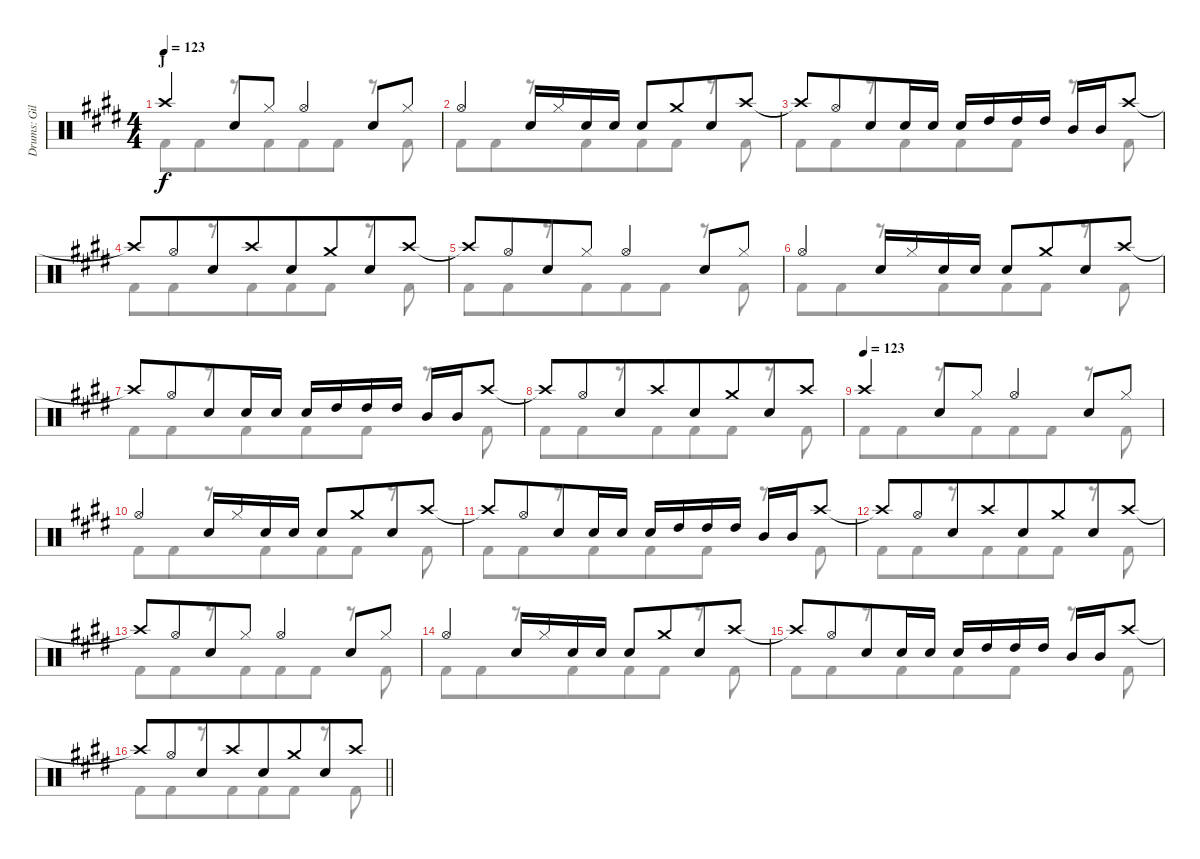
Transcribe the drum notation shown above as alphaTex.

\track ("Drums: Gil" "Drums: Gil") {instrument percussion}
\staff {score}
\articulation defaults
\voice
\ts (4 4)
\section ("" "J")
\tempo 123
\clef neutral
\ks e "Crash high (hit)".4{dy f beam merge} "Snare (hit) 2".8 "Hi-Hat (closed)".8 "Hi-Hat (open)".4 "Snare (hit) 2".8 "Hi-Hat (closed)".8
|
"Hi-Hat (open)".4{beam merge} "Snare (hit) 2".16 "Hi-Hat (closed)".16 "Snare (hit) 2".16 "Snare (hit) 2".16 "Snare (hit) 2".8 "Crash medium (hit)".8{beam merge} "Electric Snare (hit)".8 "Crash high (hit)".8 |
"Crash high (hit)"{t}.8 "Hi-Hat (open)".8{beam merge} "Snare (hit) 2".8 "Snare (hit) 2".16 "Snare (hit) 2".16 "Snare (hit) 2".16 "High Tom (hit)".16 "High Tom (hit)".16 "High Tom (hit)".16 "Mid Tom (hit)".16 "Mid Tom (hit)".16 "Crash high (hit)".8 |
"Crash high (hit)"{t}.8 "Hi-Hat (open)".8{beam merge} "Snare (hit) 2".8 "Crash high (hit)".8{beam merge} "Snare (hit) 2".8 "Crash medium (hit)".8{beam merge} "Snare (hit) 2".8 "Crash high (hit)".8 |
"Crash high (hit)"{t}.8 "Hi-Hat (open)".8{beam merge} "Snare (hit) 2".8 "Hi-Hat (closed)".8 "Hi-Hat (open)".4 "Snare (hit) 2".8 "Hi-Hat (closed)".8 |
"Hi-Hat (open)".4{beam merge} "Snare (hit) 2".16 "Hi-Hat (closed)".16 "Snare (hit) 2".16 "Snare (hit) 2".16 "Snare (hit) 2".8 "Crash medium (hit)".8{beam merge} "Electric Snare (hit)".8 "Crash high (hit)".8 |
"Crash high (hit)"{t}.8 "Hi-Hat (open)".8{beam merge} "Snare (hit) 2".8 "Snare (hit) 2".16 "Snare (hit) 2".16 "Snare (hit) 2".16 "High Tom (hit)".16 "High Tom (hit)".16 "High Tom (hit)".16 "Mid Tom (hit)".16 "Mid Tom (hit)".16 "Crash high (hit)".8 |
"Crash high (hit)"{t}.8 "Hi-Hat (open)".8{beam merge} "Snare (hit) 2".8 "Crash high (hit)".8{beam merge} "Snare (hit) 2".8 "Crash medium (hit)".8{beam merge} "Snare (hit) 2".8 "Crash high (hit)".8 |
\tempo (123)
"Crash high (hit)".4{beam merge} "Snare (hit) 2".8 "Hi-Hat (closed)".8 "Hi-Hat (open)".4 "Snare (hit) 2".8 "Hi-Hat (closed)".8 |
"Hi-Hat (open)".4{beam merge} "Snare (hit) 2".16 "Hi-Hat (closed)".16 "Snare (hit) 2".16 "Snare (hit) 2".16 "Snare (hit) 2".8 "Crash medium (hit)".8{beam merge} "Electric Snare (hit)".8 "Crash high (hit)".8 |
"Crash high (hit)"{t}.8 "Hi-Hat (open)".8{beam merge} "Snare (hit) 2".8 "Snare (hit) 2".16 "Snare (hit) 2".16 "Snare (hit) 2".16 "High Tom (hit)".16 "High Tom (hit)".16 "High Tom (hit)".16 "Mid Tom (hit)".16 "Mid Tom (hit)".16 "Crash high (hit)".8 |
"Crash high (hit)"{t}.8 "Hi-Hat (open)".8{beam merge} "Snare (hit) 2".8 "Crash high (hit)".8{beam merge} "Snare (hit) 2".8 "Crash medium (hit)".8{beam merge} "Snare (hit) 2".8 "Crash high (hit)".8 |
"Crash high (hit)"{t}.8 "Hi-Hat (open)".8{beam merge} "Snare (hit) 2".8 "Hi-Hat (closed)".8 "Hi-Hat (open)".4 "Snare (hit) 2".8 "Hi-Hat (closed)".8 |
"Hi-Hat (open)".4{beam merge} "Snare (hit) 2".16 "Hi-Hat (closed)".16 "Snare (hit) 2".16 "Snare (hit) 2".16 "Snare (hit) 2".8 "Crash medium (hit)".8{beam merge} "Electric Snare (hit)".8 "Crash high (hit)".8 |
"Crash high (hit)"{t}.8 "Hi-Hat (open)".8{beam merge} "Snare (hit) 2".8 "Snare (hit) 2".16 "Snare (hit) 2".16 "Snare (hit) 2".16 "High Tom (hit)".16 "High Tom (hit)".16 "High Tom (hit)".16 "Mid Tom (hit)".16 "Mid Tom (hit)".16 "Crash high (hit)".8 |
\barLineRight lightlight "Crash high (hit)"{t}.8 "Hi-Hat (open)".8{beam merge} "Snare (hit) 2".8 "Crash high (hit)".8{beam merge} "Snare (hit) 2".8 "Crash medium (hit)".8{beam merge} "Snare (hit) 2".8 "Crash high (hit)".8
\voice
\clef neutral
\ottava regular
\simile none
\ks e "Kick (hit) 2".8{dy f} "Kick (hit) 2".8{beam merge}
r.8{beam merge} "Kick (hit) 2".8{beam merge} "Kick (hit) 2".8 "Kick (hit) 2".8 r.8 "Kick (hit) 2".8 |
"Kick (hit) 2".8 "Kick (hit) 2".8{beam merge} r.8{beam merge} "Kick (hit) 2".8{beam merge} "Kick (hit) 2".8 "Kick (hit) 2".8 r.8 "Kick (hit) 2".8 |
"Kick (hit) 2".8 "Kick (hit) 2".8{beam merge} r.8{beam merge} "Kick (hit) 2".8{beam merge} "Kick (hit) 2".8 "Kick (hit) 2".8 r.8 "Kick (hit) 2".8 |
"Kick (hit) 2".8 "Kick (hit) 2".8{beam merge} r.8{beam merge} "Kick (hit) 2".8{beam merge} "Kick (hit) 2".8 "Kick (hit) 2".8 r.8 "Kick (hit) 2".8 |
"Kick (hit) 2".8 "Kick (hit) 2".8{beam merge} r.8{beam merge} "Kick (hit) 2".8{beam merge} "Kick (hit) 2".8 "Kick (hit) 2".8 r.8 "Kick (hit) 2".8 |
"Kick (hit) 2".8 "Kick (hit) 2".8{beam merge} r.8{beam merge} "Kick (hit) 2".8{beam merge} "Kick (hit) 2".8 "Kick (hit) 2".8 r.8 "Kick (hit) 2".8 |
"Kick (hit) 2".8 "Kick (hit) 2".8{beam merge} r.8{beam merge} "Kick (hit) 2".8{beam merge} "Kick (hit) 2".8 "Kick (hit) 2".8 r.8 "Kick (hit) 2".8 |
"Kick (hit) 2".8 "Kick (hit) 2".8{beam merge} r.8{beam merge} "Kick (hit) 2".8{beam merge} "Kick (hit) 2".8 "Kick (hit) 2".8 r.8 "Kick (hit) 2".8 |
"Kick (hit) 2".8 "Kick (hit) 2".8{beam merge} r.8{beam merge} "Kick (hit) 2".8{beam merge} "Kick (hit) 2".8 "Kick (hit) 2".8 r.8 "Kick (hit) 2".8 |
"Kick (hit) 2".8 "Kick (hit) 2".8{beam merge} r.8{beam merge} "Kick (hit) 2".8{beam merge} "Kick (hit) 2".8 "Kick (hit) 2".8 r.8 "Kick (hit) 2".8 |
"Kick (hit) 2".8 "Kick (hit) 2".8{beam merge} r.8{beam merge} "Kick (hit) 2".8{beam merge} "Kick (hit) 2".8 "Kick (hit) 2".8 r.8 "Kick (hit) 2".8 |
"Kick (hit) 2".8 "Kick (hit) 2".8{beam merge} r.8{beam merge} "Kick (hit) 2".8{beam merge} "Kick (hit) 2".8 "Kick (hit) 2".8 r.8 "Kick (hit) 2".8 |
"Kick (hit) 2".8 "Kick (hit) 2".8{beam merge} r.8{beam merge} "Kick (hit) 2".8{beam merge} "Kick (hit) 2".8 "Kick (hit) 2".8 r.8 "Kick (hit) 2".8 |
"Kick (hit) 2".8 "Kick (hit) 2".8{beam merge} r.8{beam merge} "Kick (hit) 2".8{beam merge} "Kick (hit) 2".8 "Kick (hit) 2".8 r.8 "Kick (hit) 2".8 |
"Kick (hit) 2".8 "Kick (hit) 2".8{beam merge} r.8{beam merge} "Kick (hit) 2".8{beam merge} "Kick (hit) 2".8 "Kick (hit) 2".8 r.8 "Kick (hit) 2".8 |
\barLineRight lightlight "Kick (hit) 2".8 "Kick (hit) 2".8{beam merge}
r.8{beam merge} "Kick (hit) 2".8{beam merge} "Kick (hit) 2".8 "Kick (hit) 2".8 r.8 "Kick (hit) 2".8
